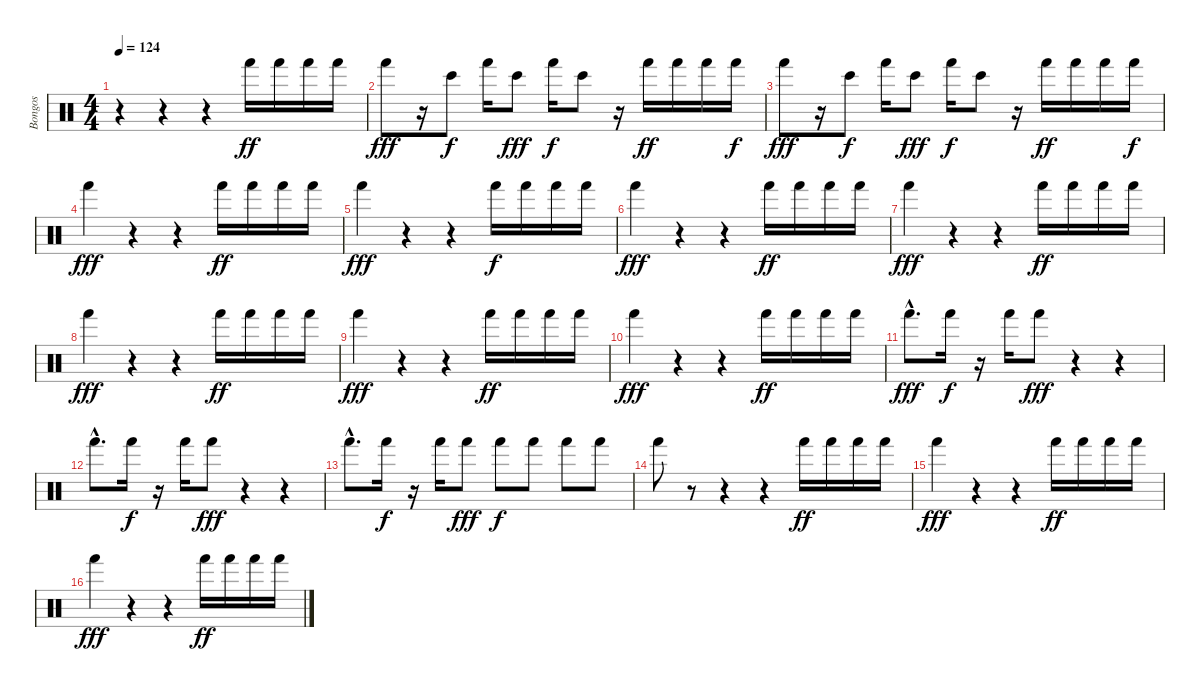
\track ("Bongos" "Bongos") {instrument percussion}
\staff {score}
\articulation defaults
\ts (4 4)
\tempo 124
\clef neutral
\ks c
r.4{dy ff} r.4 r.4 "Hand (hit)".16 "Hand (hit)".16 "Hand (hit)".16 "Hand (hit)".16 |
"Hand (hit)".8{dy fff} r.16 "Bongo High (hit)".8{dy f} "Hand (hit)".16 "Bongo High (hit)".8{dy fff} "Hand (hit)".16{dy f} "Bongo High (hit)".8 r.16 "Hand (hit)".16{dy ff} "Hand (hit)".16 "Hand (hit)".16 "Hand (hit)".16{dy f} |
"Hand (hit)".8{dy fff} r.16 "Bongo High (hit)".8{dy f} "Hand (hit)".16 "Bongo High (hit)".8{dy fff} "Hand (hit)".16{dy f} "Bongo High (hit)".8 r.16 "Hand (hit)".16{dy ff} "Hand (hit)".16 "Hand (hit)".16 "Hand (hit)".16{dy f} |
"Hand (hit)".4{dy fff} r.4 r.4 "Hand (hit)".16{dy ff} "Hand (hit)".16 "Hand (hit)".16 "Hand (hit)".16 |
"Hand (hit)".4{dy fff} r.4 r.4 "Hand (hit)".16{dy f} "Hand (hit)".16 "Hand (hit)".16 "Hand (hit)".16 |
"Hand (hit)".4{dy fff} r.4 r.4 "Hand (hit)".16{dy ff} "Hand (hit)".16 "Hand (hit)".16 "Hand (hit)".16 |
"Hand (hit)".4{dy fff} r.4 r.4 "Hand (hit)".16{dy ff} "Hand (hit)".16 "Hand (hit)".16 "Hand (hit)".16 |
"Hand (hit)".4{dy fff} r.4 r.4 "Hand (hit)".16{dy ff} "Hand (hit)".16 "Hand (hit)".16 "Hand (hit)".16 |
"Hand (hit)".4{dy fff} r.4 r.4 "Hand (hit)".16{dy ff} "Hand (hit)".16 "Hand (hit)".16 "Hand (hit)".16 |
"Hand (hit)".4{dy fff} r.4 r.4 "Hand (hit)".16{dy ff} "Hand (hit)".16 "Hand (hit)".16 "Hand (hit)".16 |
"Hand (hit)"{hac}.8{d dy fff} "Hand (hit)".16{dy f} r.16 "Hand (hit)".16 "Hand (hit)".8{dy fff} r.4 r.4 |
"Hand (hit)"{hac}.8{d} "Hand (hit)".16{dy f} r.16 "Hand (hit)".16 "Hand (hit)".8{dy fff} r.4 r.4 |
"Hand (hit)"{hac}.8{d} "Hand (hit)".16{dy f} r.16 "Hand (hit)".16 "Hand (hit)".8{dy fff} "Hand (hit)".8{dy f} "Hand (hit)".8 "Hand (hit)".8 "Hand (hit)".8 |
"Hand (hit)".8 r.8 r.4 r.4 "Hand (hit)".16{dy ff} "Hand (hit)".16 "Hand (hit)".16 "Hand (hit)".16 |
"Hand (hit)".4{dy fff} r.4 r.4 "Hand (hit)".16{dy ff} "Hand (hit)".16 "Hand (hit)".16 "Hand (hit)".16 |
"Hand (hit)".4{dy fff} r.4 r.4 "Hand (hit)".16{dy ff} "Hand (hit)".16 "Hand (hit)".16 "Hand (hit)".16
